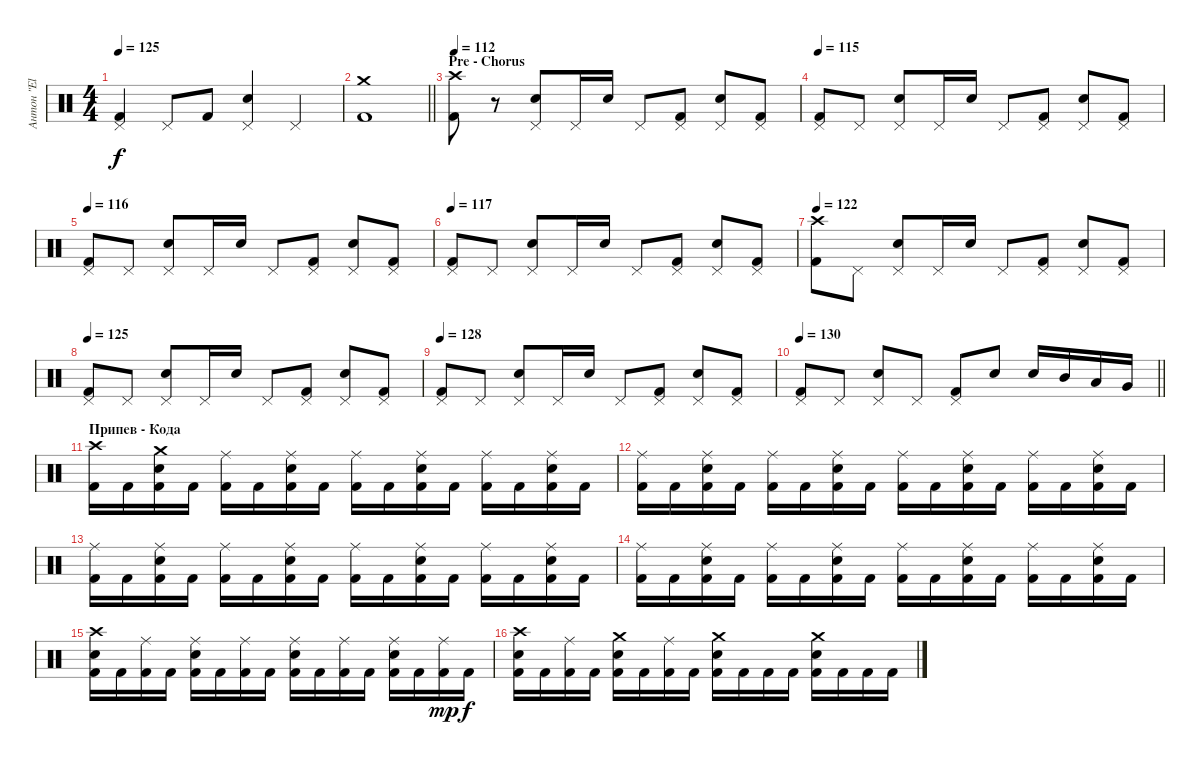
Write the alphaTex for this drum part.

\track ("Антон \"El Bastardo\" Смольянин" "Антон \"El ") {instrument percussion}
\staff {score}
\articulation defaults
\ts (4 4)
\tempo 125
\clef neutral
\ks c
("Pedal Hi-Hat (hit)" "Kick (hit) 2").4{dy f} "Pedal Hi-Hat (hit)".8 "Kick (hit) 2".8 ("Pedal Hi-Hat (hit)" "Electric Snare (hit)").4 "Pedal Hi-Hat (hit)".4 |
\barLineRight lightlight
("Crash medium (hit)" "Kick (hit) 2").1 |
\section ("" "Pre - Chorus")
\tempo 112
("Crash high (hit)" "Kick (hit) 2").8 r.8 ("Pedal Hi-Hat (hit)" "Electric Snare (hit)").8 "Pedal Hi-Hat (hit)".16 "Electric Snare (hit)".16 "Pedal Hi-Hat (hit)".8 ("Pedal Hi-Hat (hit)" "Kick (hit) 2").8 ("Pedal Hi-Hat (hit)" "Electric Snare (hit)").8 ("Pedal Hi-Hat (hit)" "Kick (hit) 2").8 |
\tempo 115
("Pedal Hi-Hat (hit)" "Kick (hit) 2").8 "Pedal Hi-Hat (hit)".8 ("Pedal Hi-Hat (hit)" "Electric Snare (hit)").8 "Pedal Hi-Hat (hit)".16 "Electric Snare (hit)".16 "Pedal Hi-Hat (hit)".8 ("Pedal Hi-Hat (hit)" "Kick (hit) 2").8 ("Pedal Hi-Hat (hit)" "Electric Snare (hit)").8 ("Pedal Hi-Hat (hit)" "Kick (hit) 2").8 |
\tempo 116
("Pedal Hi-Hat (hit)" "Kick (hit) 2").8 "Pedal Hi-Hat (hit)".8 ("Pedal Hi-Hat (hit)" "Electric Snare (hit)").8 "Pedal Hi-Hat (hit)".16 "Electric Snare (hit)".16 "Pedal Hi-Hat (hit)".8 ("Pedal Hi-Hat (hit)" "Kick (hit) 2").8 ("Pedal Hi-Hat (hit)" "Electric Snare (hit)").8 ("Pedal Hi-Hat (hit)" "Kick (hit) 2").8 |
\tempo 117
("Pedal Hi-Hat (hit)" "Kick (hit) 2").8 "Pedal Hi-Hat (hit)".8 ("Pedal Hi-Hat (hit)" "Electric Snare (hit)").8 "Pedal Hi-Hat (hit)".16 "Electric Snare (hit)".16 "Pedal Hi-Hat (hit)".8 ("Pedal Hi-Hat (hit)" "Kick (hit) 2").8 ("Pedal Hi-Hat (hit)" "Electric Snare (hit)").8 ("Pedal Hi-Hat (hit)" "Kick (hit) 2").8 |
\tempo 122
("Crash high (hit)" "Kick (hit) 2").8 "Pedal Hi-Hat (hit)".8 ("Pedal Hi-Hat (hit)" "Electric Snare (hit)").8 "Pedal Hi-Hat (hit)".16 "Electric Snare (hit)".16 "Pedal Hi-Hat (hit)".8 ("Pedal Hi-Hat (hit)" "Kick (hit) 2").8 ("Pedal Hi-Hat (hit)" "Electric Snare (hit)").8 ("Pedal Hi-Hat (hit)" "Kick (hit) 2").8 |
\tempo 125
("Pedal Hi-Hat (hit)" "Kick (hit) 2").8 "Pedal Hi-Hat (hit)".8 ("Pedal Hi-Hat (hit)" "Electric Snare (hit)").8 "Pedal Hi-Hat (hit)".16 "Electric Snare (hit)".16 "Pedal Hi-Hat (hit)".8 ("Pedal Hi-Hat (hit)" "Kick (hit) 2").8 ("Pedal Hi-Hat (hit)" "Electric Snare (hit)").8 ("Pedal Hi-Hat (hit)" "Kick (hit) 2").8 |
\tempo 128
("Pedal Hi-Hat (hit)" "Kick (hit) 2").8 "Pedal Hi-Hat (hit)".8 ("Pedal Hi-Hat (hit)" "Electric Snare (hit)").8 "Pedal Hi-Hat (hit)".16 "Electric Snare (hit)".16 "Pedal Hi-Hat (hit)".8 ("Pedal Hi-Hat (hit)" "Kick (hit) 2").8 ("Pedal Hi-Hat (hit)" "Electric Snare (hit)").8 ("Pedal Hi-Hat (hit)" "Kick (hit) 2").8 |
\tempo 130
\barLineRight lightlight
("Pedal Hi-Hat (hit)" "Kick (hit) 2").8 "Pedal Hi-Hat (hit)".8 ("Pedal Hi-Hat (hit)" "Electric Snare (hit)").8 "Pedal Hi-Hat (hit)".8 ("Pedal Hi-Hat (hit)" "Kick (hit) 2").8 "Electric Snare (hit)".8 "Electric Snare (hit)".16 "Mid Tom (hit)".16 "Low Tom (hit)".16 "Very Low Tom (hit)".16 |
\section ("" "Припев - Кода")
("Crash high (hit)" "Kick (hit) 2").16 "Kick (hit) 2".16 ("Crash medium (hit)" "Electric Snare (hit)" "Kick (hit) 2").16 "Kick (hit) 2".16 ("Ride (middle)" "Kick (hit) 2").16 "Kick (hit) 2".16 ("Ride (middle)" "Electric Snare (hit)" "Kick (hit) 2").16 "Kick (hit) 2".16 ("Ride (middle)" "Kick (hit) 2").16 "Kick (hit) 2".16 ("Ride (middle)" "Electric Snare (hit)" "Kick (hit) 2").16 "Kick (hit) 2".16 ("Ride (middle)" "Kick (hit) 2").16 "Kick (hit) 2".16 ("Ride (middle)" "Electric Snare (hit)" "Kick (hit) 2").16 "Kick (hit) 2".16 |
("Ride (middle)" "Kick (hit) 2").16 "Kick (hit) 2".16 ("Ride (middle)" "Electric Snare (hit)" "Kick (hit) 2").16 "Kick (hit) 2".16 ("Ride (middle)" "Kick (hit) 2").16 "Kick (hit) 2".16 ("Ride (middle)" "Electric Snare (hit)" "Kick (hit) 2").16 "Kick (hit) 2".16 ("Ride (middle)" "Kick (hit) 2").16 "Kick (hit) 2".16 ("Ride (middle)" "Electric Snare (hit)" "Kick (hit) 2").16 "Kick (hit) 2".16 ("Ride (middle)" "Kick (hit) 2").16 "Kick (hit) 2".16 ("Ride (middle)" "Electric Snare (hit)" "Kick (hit) 2").16 "Kick (hit) 2".16 |
("Ride (middle)" "Kick (hit) 2").16 "Kick (hit) 2".16 ("Ride (middle)" "Electric Snare (hit)" "Kick (hit) 2").16 "Kick (hit) 2".16 ("Ride (middle)" "Kick (hit) 2").16 "Kick (hit) 2".16 ("Ride (middle)" "Electric Snare (hit)" "Kick (hit) 2").16 "Kick (hit) 2".16 ("Ride (middle)" "Kick (hit) 2").16 "Kick (hit) 2".16 ("Ride (middle)" "Electric Snare (hit)" "Kick (hit) 2").16 "Kick (hit) 2".16 ("Ride (middle)" "Kick (hit) 2").16 "Kick (hit) 2".16 ("Ride (middle)" "Electric Snare (hit)" "Kick (hit) 2").16 "Kick (hit) 2".16 |
("Ride (middle)" "Kick (hit) 2").16 "Kick (hit) 2".16 ("Ride (middle)" "Electric Snare (hit)" "Kick (hit) 2").16 "Kick (hit) 2".16 ("Ride (middle)" "Kick (hit) 2").16 "Kick (hit) 2".16 ("Ride (middle)" "Electric Snare (hit)" "Kick (hit) 2").16 "Kick (hit) 2".16 ("Ride (middle)" "Kick (hit) 2").16 "Kick (hit) 2".16 ("Ride (middle)" "Electric Snare (hit)" "Kick (hit) 2").16 "Kick (hit) 2".16 ("Ride (middle)" "Kick (hit) 2").16 "Kick (hit) 2".16 ("Ride (middle)" "Electric Snare (hit)" "Kick (hit) 2").16 "Kick (hit) 2".16 |
("Crash high (hit)" "Electric Snare (hit)" "Kick (hit) 2").16 "Kick (hit) 2".16 ("Ride (middle)" "Kick (hit) 2").16 "Kick (hit) 2".16 ("Ride (middle)" "Electric Snare (hit)" "Kick (hit) 2").16 "Kick (hit) 2".16 ("Ride (middle)" "Kick (hit) 2").16 "Kick (hit) 2".16 ("Ride (middle)" "Electric Snare (hit)" "Kick (hit) 2").16 "Kick (hit) 2".16 ("Ride (middle)" "Kick (hit) 2").16 "Kick (hit) 2".16 ("Ride (middle)" "Electric Snare (hit)" "Kick (hit) 2").16 "Kick (hit) 2".16 ("Ride (middle)" "Kick (hit) 2").16{dy mp} "Kick (hit) 2".16{dy f} |
("Crash high (hit)" "Electric Snare (hit)" "Kick (hit) 2").16 "Kick (hit) 2".16 ("Ride (middle)" "Kick (hit) 2").16 "Kick (hit) 2".16 ("Crash medium (hit)" "Electric Snare (hit)" "Kick (hit) 2").16 "Kick (hit) 2".16 ("Ride (middle)" "Kick (hit) 2").16 "Kick (hit) 2".16 ("Crash medium (hit)" "Electric Snare (hit)" "Kick (hit) 2").16 "Kick (hit) 2".16 "Kick (hit) 2".16 "Kick (hit) 2".16 ("Crash medium (hit)" "Electric Snare (hit)" "Kick (hit) 2").16 "Kick (hit) 2".16 "Kick (hit) 2".16 "Kick (hit) 2".16
